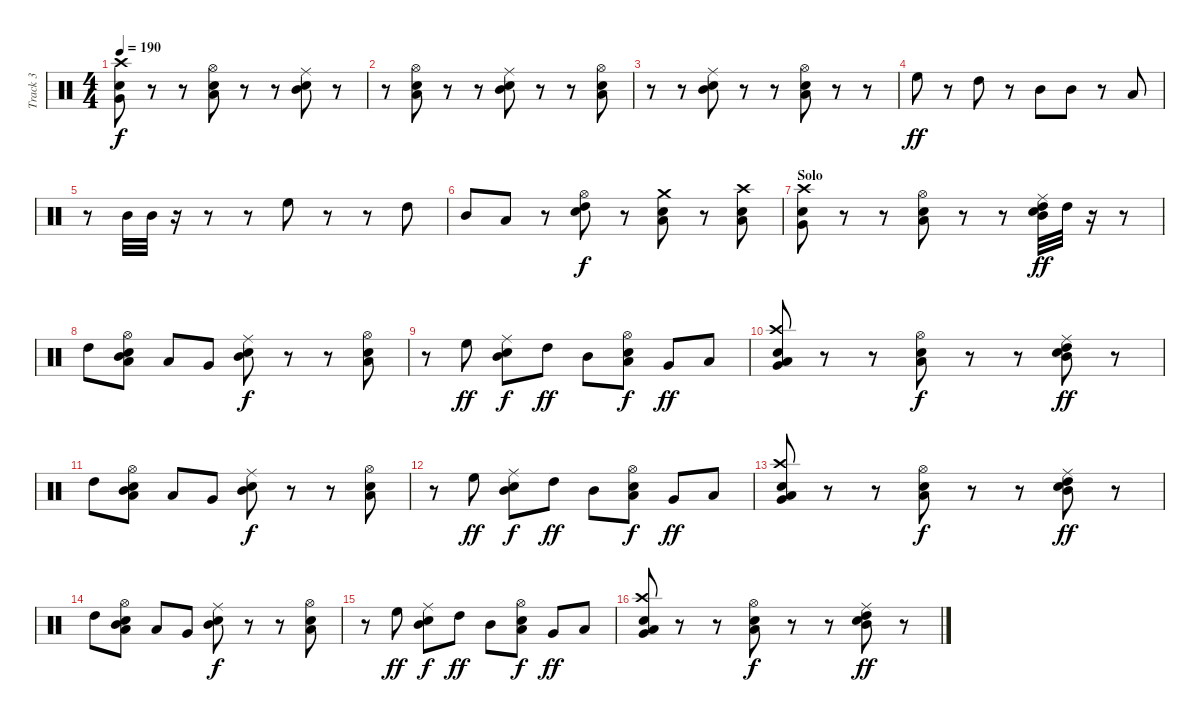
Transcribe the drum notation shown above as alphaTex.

\track ("Track 3" "Track 3") {instrument percussion}
\staff {score}
\articulation defaults
\ts (4 4)
\tempo 190
\clef neutral
\ks c
("Very Low Tom (hit)" "Snare (hit) 2" "Crash high (hit)").8{dy f} r.8 r.8 ("Low Tom (hit)" "Snare (hit) 2" "Hi-Hat (open)").8 r.8 r.8 ("Mid Tom (hit)" "Snare (hit) 2" "Ride (middle)").8 r.8 |
r.8 ("Low Tom (hit)" "Snare (hit) 2" "Hi-Hat (open)").8 r.8 r.8 ("Mid Tom (hit)" "Snare (hit) 2" "Ride (middle)").8 r.8 r.8 ("Low Tom (hit)" "Snare (hit) 2" "Hi-Hat (open)").8 |
r.8 r.8 ("Mid Tom (hit)" "Snare (hit) 2" "Ride (middle)").8 r.8 r.8 ("Low Tom (hit)" "Snare (hit) 2" "Hi-Hat (open)").8 r.8 r.8 |
"High Floor Tom (hit)".8{dy ff} r.8 "High Tom (hit)".8 r.8 "Mid Tom (hit)".8 "Mid Tom (hit)".8 r.8 "Low Tom (hit)".8 |
r.8 "Mid Tom (hit)".32 "Mid Tom (hit)".32 r.16 r.8 r.8 "High Floor Tom (hit)".8 r.8 r.8 "High Tom (hit)".8 |
"Mid Tom (hit)".8 "Low Tom (hit)".8 r.8 ("Electric Snare (hit)" "High Tom (hit)" "Hi-Hat (open)").8{dy f} r.8 ("Electric Snare (hit)" "Low Tom (hit)" "Crash medium (hit)").8 r.8 ("Low Tom (hit)" "Snare (hit) 2" "Crash high (hit)").8 |
\section ("" "Solo")
("Very Low Tom (hit)" "Snare (hit) 2" "Crash high (hit)").8 r.8 r.8 ("Low Tom (hit)" "Snare (hit) 2" "Hi-Hat (open)").8 r.8 r.8 ("Mid Tom (hit)" "Snare (hit) 2" "Ride (middle)" "High Tom (hit)").32{dy ff} "High Tom (hit)".32 r.16 r.8 |
"High Tom (hit)".8 ("Low Tom (hit)" "Snare (hit) 2" "Hi-Hat (open)" "Mid Tom (hit)").8 "Low Tom (hit)".8 "Very Low Tom (hit)".8 ("Mid Tom (hit)" "Snare (hit) 2" "Ride (middle)").8{dy f} r.8 r.8 ("Low Tom (hit)" "Snare (hit) 2" "Hi-Hat (open)").8 |
r.8 "High Floor Tom (hit)".8{dy ff} ("Mid Tom (hit)" "Snare (hit) 2" "Ride (middle)").8{dy f} "High Tom (hit)".8{dy ff} "Mid Tom (hit)".8 ("Low Tom (hit)" "Snare (hit) 2" "Hi-Hat (open)").8{dy f} "Very Low Tom (hit)".8{dy ff} "Low Floor Tom (hit)".8 |
("Very Low Tom (hit)" "Snare (hit) 2" "Crash high (hit)" "Low Tom (hit)").8 r.8 r.8 ("Low Tom (hit)" "Snare (hit) 2" "Hi-Hat (open)").8{dy f} r.8 r.8 ("Mid Tom (hit)" "Snare (hit) 2" "Ride (middle)" "High Tom (hit)").8{dy ff} r.8 |
"High Tom (hit)".8 ("Low Tom (hit)" "Snare (hit) 2" "Hi-Hat (open)" "Mid Tom (hit)").8 "Low Tom (hit)".8 "Very Low Tom (hit)".8 ("Mid Tom (hit)" "Snare (hit) 2" "Ride (middle)").8{dy f} r.8 r.8 ("Low Tom (hit)" "Snare (hit) 2" "Hi-Hat (open)").8 |
r.8 "High Floor Tom (hit)".8{dy ff} ("Mid Tom (hit)" "Snare (hit) 2" "Ride (middle)").8{dy f} "High Tom (hit)".8{dy ff} "Mid Tom (hit)".8 ("Low Tom (hit)" "Snare (hit) 2" "Hi-Hat (open)").8{dy f} "Very Low Tom (hit)".8{dy ff} "Low Floor Tom (hit)".8 |
("Very Low Tom (hit)" "Snare (hit) 2" "Crash high (hit)" "Low Tom (hit)").8 r.8 r.8 ("Low Tom (hit)" "Snare (hit) 2" "Hi-Hat (open)").8{dy f} r.8 r.8 ("Mid Tom (hit)" "Snare (hit) 2" "Ride (middle)" "High Tom (hit)").8{dy ff} r.8 |
"High Tom (hit)".8 ("Low Tom (hit)" "Snare (hit) 2" "Hi-Hat (open)" "Mid Tom (hit)").8 "Low Tom (hit)".8 "Very Low Tom (hit)".8 ("Mid Tom (hit)" "Snare (hit) 2" "Ride (middle)").8{dy f} r.8 r.8 ("Low Tom (hit)" "Snare (hit) 2" "Hi-Hat (open)").8 |
r.8 "High Floor Tom (hit)".8{dy ff} ("Mid Tom (hit)" "Snare (hit) 2" "Ride (middle)").8{dy f} "High Tom (hit)".8{dy ff} "Mid Tom (hit)".8 ("Low Tom (hit)" "Snare (hit) 2" "Hi-Hat (open)").8{dy f} "Very Low Tom (hit)".8{dy ff} "Low Floor Tom (hit)".8 |
("Very Low Tom (hit)" "Snare (hit) 2" "Crash high (hit)" "Low Tom (hit)").8 r.8 r.8 ("Low Tom (hit)" "Snare (hit) 2" "Hi-Hat (open)").8{dy f} r.8 r.8 ("Mid Tom (hit)" "Snare (hit) 2" "Ride (middle)" "High Tom (hit)").8{dy ff} r.8
